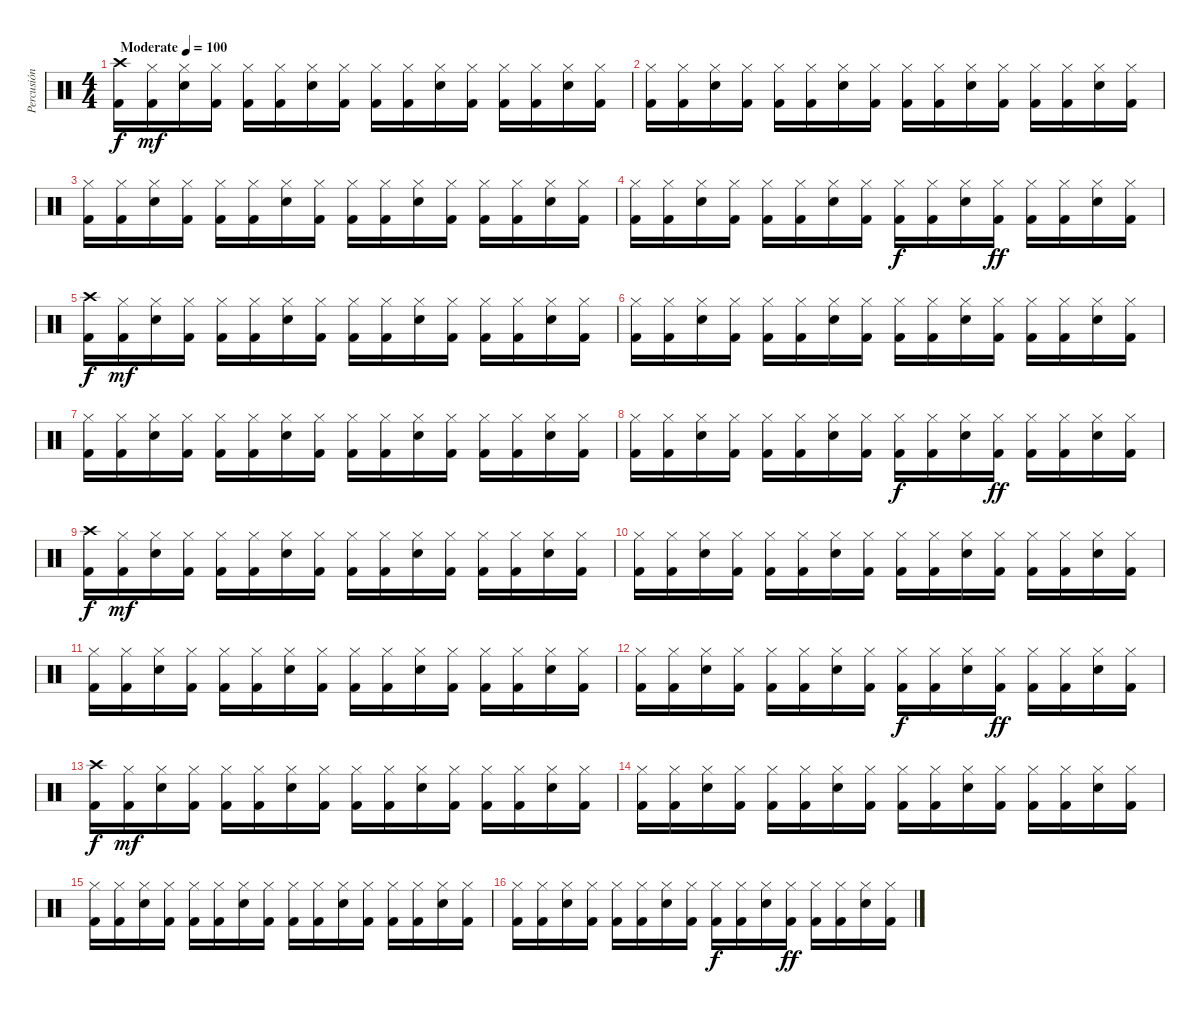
\track ("Percusión" "Percusión") {instrument percussion}
\staff {score}
\articulation defaults
\ts (4 4)
\tempo (100 "Moderate")
\clef neutral
\ks c
("Crash high (hit)" "Kick (hit) 2").16{dy f} ("Hi-Hat (closed)" "Kick (hit) 2").16{dy mf} ("Hi-Hat (closed)" "Electric Snare (hit)").16 ("Hi-Hat (closed)" "Kick (hit) 2").16 ("Hi-Hat (closed)" "Kick (hit) 2").16 ("Hi-Hat (closed)" "Kick (hit) 2").16 ("Hi-Hat (closed)" "Electric Snare (hit)").16 ("Hi-Hat (closed)" "Kick (hit) 2").16 ("Hi-Hat (closed)" "Kick (hit) 2").16 ("Hi-Hat (closed)" "Kick (hit) 2").16 ("Hi-Hat (closed)" "Electric Snare (hit)").16 ("Hi-Hat (closed)" "Kick (hit) 2").16 ("Hi-Hat (closed)" "Kick (hit) 2").16 ("Hi-Hat (closed)" "Kick (hit) 2").16 ("Hi-Hat (closed)" "Electric Snare (hit)").16 ("Hi-Hat (closed)" "Kick (hit) 2").16 |
("Hi-Hat (closed)" "Kick (hit) 2").16 ("Hi-Hat (closed)" "Kick (hit) 2").16 ("Hi-Hat (closed)" "Electric Snare (hit)").16 ("Hi-Hat (closed)" "Kick (hit) 2").16 ("Hi-Hat (closed)" "Kick (hit) 2").16 ("Hi-Hat (closed)" "Kick (hit) 2").16 ("Hi-Hat (closed)" "Electric Snare (hit)").16 ("Hi-Hat (closed)" "Kick (hit) 2").16 ("Hi-Hat (closed)" "Kick (hit) 2").16 ("Hi-Hat (closed)" "Kick (hit) 2").16 ("Hi-Hat (closed)" "Electric Snare (hit)").16 ("Hi-Hat (closed)" "Kick (hit) 2").16 ("Hi-Hat (closed)" "Kick (hit) 2").16 ("Hi-Hat (closed)" "Kick (hit) 2").16 ("Hi-Hat (closed)" "Electric Snare (hit)").16 ("Hi-Hat (closed)" "Kick (hit) 2").16 |
("Hi-Hat (closed)" "Kick (hit) 2").16 ("Hi-Hat (closed)" "Kick (hit) 2").16 ("Hi-Hat (closed)" "Electric Snare (hit)").16 ("Hi-Hat (closed)" "Kick (hit) 2").16 ("Hi-Hat (closed)" "Kick (hit) 2").16 ("Hi-Hat (closed)" "Kick (hit) 2").16 ("Hi-Hat (closed)" "Electric Snare (hit)").16 ("Hi-Hat (closed)" "Kick (hit) 2").16 ("Hi-Hat (closed)" "Kick (hit) 2").16 ("Hi-Hat (closed)" "Kick (hit) 2").16 ("Hi-Hat (closed)" "Electric Snare (hit)").16 ("Hi-Hat (closed)" "Kick (hit) 2").16 ("Hi-Hat (closed)" "Kick (hit) 2").16 ("Hi-Hat (closed)" "Kick (hit) 2").16 ("Hi-Hat (closed)" "Electric Snare (hit)").16 ("Hi-Hat (closed)" "Kick (hit) 2").16 |
("Hi-Hat (closed)" "Kick (hit) 2").16 ("Hi-Hat (closed)" "Kick (hit) 2").16 ("Hi-Hat (closed)" "Electric Snare (hit)").16 ("Hi-Hat (closed)" "Kick (hit) 2").16 ("Hi-Hat (closed)" "Kick (hit) 2").16 ("Hi-Hat (closed)" "Kick (hit) 2").16 ("Hi-Hat (closed)" "Electric Snare (hit)").16 ("Hi-Hat (closed)" "Kick (hit) 2").16 ("Hi-Hat (closed)" "Kick (hit) 2").16{dy f} ("Hi-Hat (closed)" "Kick (hit) 2").16 ("Hi-Hat (closed)" "Electric Snare (hit)").16 ("Hi-Hat (closed)" "Kick (hit) 2").16{dy ff} ("Hi-Hat (closed)" "Kick (hit) 2").16 ("Hi-Hat (closed)" "Kick (hit) 2").16 ("Hi-Hat (closed)" "Electric Snare (hit)").16 ("Hi-Hat (closed)" "Kick (hit) 2").16 |
("Crash high (hit)" "Kick (hit) 2").16{dy f} ("Hi-Hat (closed)" "Kick (hit) 2").16{dy mf} ("Hi-Hat (closed)" "Electric Snare (hit)").16 ("Hi-Hat (closed)" "Kick (hit) 2").16 ("Hi-Hat (closed)" "Kick (hit) 2").16 ("Hi-Hat (closed)" "Kick (hit) 2").16 ("Hi-Hat (closed)" "Electric Snare (hit)").16 ("Hi-Hat (closed)" "Kick (hit) 2").16 ("Hi-Hat (closed)" "Kick (hit) 2").16 ("Hi-Hat (closed)" "Kick (hit) 2").16 ("Hi-Hat (closed)" "Electric Snare (hit)").16 ("Hi-Hat (closed)" "Kick (hit) 2").16 ("Hi-Hat (closed)" "Kick (hit) 2").16 ("Hi-Hat (closed)" "Kick (hit) 2").16 ("Hi-Hat (closed)" "Electric Snare (hit)").16 ("Hi-Hat (closed)" "Kick (hit) 2").16 |
("Hi-Hat (closed)" "Kick (hit) 2").16 ("Hi-Hat (closed)" "Kick (hit) 2").16 ("Hi-Hat (closed)" "Electric Snare (hit)").16 ("Hi-Hat (closed)" "Kick (hit) 2").16 ("Hi-Hat (closed)" "Kick (hit) 2").16 ("Hi-Hat (closed)" "Kick (hit) 2").16 ("Hi-Hat (closed)" "Electric Snare (hit)").16 ("Hi-Hat (closed)" "Kick (hit) 2").16 ("Hi-Hat (closed)" "Kick (hit) 2").16 ("Hi-Hat (closed)" "Kick (hit) 2").16 ("Hi-Hat (closed)" "Electric Snare (hit)").16 ("Hi-Hat (closed)" "Kick (hit) 2").16 ("Hi-Hat (closed)" "Kick (hit) 2").16 ("Hi-Hat (closed)" "Kick (hit) 2").16 ("Hi-Hat (closed)" "Electric Snare (hit)").16 ("Hi-Hat (closed)" "Kick (hit) 2").16 |
("Hi-Hat (closed)" "Kick (hit) 2").16 ("Hi-Hat (closed)" "Kick (hit) 2").16 ("Hi-Hat (closed)" "Electric Snare (hit)").16 ("Hi-Hat (closed)" "Kick (hit) 2").16 ("Hi-Hat (closed)" "Kick (hit) 2").16 ("Hi-Hat (closed)" "Kick (hit) 2").16 ("Hi-Hat (closed)" "Electric Snare (hit)").16 ("Hi-Hat (closed)" "Kick (hit) 2").16 ("Hi-Hat (closed)" "Kick (hit) 2").16 ("Hi-Hat (closed)" "Kick (hit) 2").16 ("Hi-Hat (closed)" "Electric Snare (hit)").16 ("Hi-Hat (closed)" "Kick (hit) 2").16 ("Hi-Hat (closed)" "Kick (hit) 2").16 ("Hi-Hat (closed)" "Kick (hit) 2").16 ("Hi-Hat (closed)" "Electric Snare (hit)").16 ("Hi-Hat (closed)" "Kick (hit) 2").16 |
("Hi-Hat (closed)" "Kick (hit) 2").16 ("Hi-Hat (closed)" "Kick (hit) 2").16 ("Hi-Hat (closed)" "Electric Snare (hit)").16 ("Hi-Hat (closed)" "Kick (hit) 2").16 ("Hi-Hat (closed)" "Kick (hit) 2").16 ("Hi-Hat (closed)" "Kick (hit) 2").16 ("Hi-Hat (closed)" "Electric Snare (hit)").16 ("Hi-Hat (closed)" "Kick (hit) 2").16 ("Hi-Hat (closed)" "Kick (hit) 2").16{dy f} ("Hi-Hat (closed)" "Kick (hit) 2").16 ("Hi-Hat (closed)" "Electric Snare (hit)").16 ("Hi-Hat (closed)" "Kick (hit) 2").16{dy ff} ("Hi-Hat (closed)" "Kick (hit) 2").16 ("Hi-Hat (closed)" "Kick (hit) 2").16 ("Hi-Hat (closed)" "Electric Snare (hit)").16 ("Hi-Hat (closed)" "Kick (hit) 2").16 |
("Crash high (hit)" "Kick (hit) 2").16{dy f} ("Hi-Hat (closed)" "Kick (hit) 2").16{dy mf} ("Hi-Hat (closed)" "Electric Snare (hit)").16 ("Hi-Hat (closed)" "Kick (hit) 2").16 ("Hi-Hat (closed)" "Kick (hit) 2").16 ("Hi-Hat (closed)" "Kick (hit) 2").16 ("Hi-Hat (closed)" "Electric Snare (hit)").16 ("Hi-Hat (closed)" "Kick (hit) 2").16 ("Hi-Hat (closed)" "Kick (hit) 2").16 ("Hi-Hat (closed)" "Kick (hit) 2").16 ("Hi-Hat (closed)" "Electric Snare (hit)").16 ("Hi-Hat (closed)" "Kick (hit) 2").16 ("Hi-Hat (closed)" "Kick (hit) 2").16 ("Hi-Hat (closed)" "Kick (hit) 2").16 ("Hi-Hat (closed)" "Electric Snare (hit)").16 ("Hi-Hat (closed)" "Kick (hit) 2").16 |
("Hi-Hat (closed)" "Kick (hit) 2").16 ("Hi-Hat (closed)" "Kick (hit) 2").16 ("Hi-Hat (closed)" "Electric Snare (hit)").16 ("Hi-Hat (closed)" "Kick (hit) 2").16 ("Hi-Hat (closed)" "Kick (hit) 2").16 ("Hi-Hat (closed)" "Kick (hit) 2").16 ("Hi-Hat (closed)" "Electric Snare (hit)").16 ("Hi-Hat (closed)" "Kick (hit) 2").16 ("Hi-Hat (closed)" "Kick (hit) 2").16 ("Hi-Hat (closed)" "Kick (hit) 2").16 ("Hi-Hat (closed)" "Electric Snare (hit)").16 ("Hi-Hat (closed)" "Kick (hit) 2").16 ("Hi-Hat (closed)" "Kick (hit) 2").16 ("Hi-Hat (closed)" "Kick (hit) 2").16 ("Hi-Hat (closed)" "Electric Snare (hit)").16 ("Hi-Hat (closed)" "Kick (hit) 2").16 |
("Hi-Hat (closed)" "Kick (hit) 2").16 ("Hi-Hat (closed)" "Kick (hit) 2").16 ("Hi-Hat (closed)" "Electric Snare (hit)").16 ("Hi-Hat (closed)" "Kick (hit) 2").16 ("Hi-Hat (closed)" "Kick (hit) 2").16 ("Hi-Hat (closed)" "Kick (hit) 2").16 ("Hi-Hat (closed)" "Electric Snare (hit)").16 ("Hi-Hat (closed)" "Kick (hit) 2").16 ("Hi-Hat (closed)" "Kick (hit) 2").16 ("Hi-Hat (closed)" "Kick (hit) 2").16 ("Hi-Hat (closed)" "Electric Snare (hit)").16 ("Hi-Hat (closed)" "Kick (hit) 2").16 ("Hi-Hat (closed)" "Kick (hit) 2").16 ("Hi-Hat (closed)" "Kick (hit) 2").16 ("Hi-Hat (closed)" "Electric Snare (hit)").16 ("Hi-Hat (closed)" "Kick (hit) 2").16 |
("Hi-Hat (closed)" "Kick (hit) 2").16 ("Hi-Hat (closed)" "Kick (hit) 2").16 ("Hi-Hat (closed)" "Electric Snare (hit)").16 ("Hi-Hat (closed)" "Kick (hit) 2").16 ("Hi-Hat (closed)" "Kick (hit) 2").16 ("Hi-Hat (closed)" "Kick (hit) 2").16 ("Hi-Hat (closed)" "Electric Snare (hit)").16 ("Hi-Hat (closed)" "Kick (hit) 2").16 ("Hi-Hat (closed)" "Kick (hit) 2").16{dy f} ("Hi-Hat (closed)" "Kick (hit) 2").16 ("Hi-Hat (closed)" "Electric Snare (hit)").16 ("Hi-Hat (closed)" "Kick (hit) 2").16{dy ff} ("Hi-Hat (closed)" "Kick (hit) 2").16 ("Hi-Hat (closed)" "Kick (hit) 2").16 ("Hi-Hat (closed)" "Electric Snare (hit)").16 ("Hi-Hat (closed)" "Kick (hit) 2").16 |
("Crash high (hit)" "Kick (hit) 2").16{dy f} ("Hi-Hat (closed)" "Kick (hit) 2").16{dy mf} ("Hi-Hat (closed)" "Electric Snare (hit)").16 ("Hi-Hat (closed)" "Kick (hit) 2").16 ("Hi-Hat (closed)" "Kick (hit) 2").16 ("Hi-Hat (closed)" "Kick (hit) 2").16 ("Hi-Hat (closed)" "Electric Snare (hit)").16 ("Hi-Hat (closed)" "Kick (hit) 2").16 ("Hi-Hat (closed)" "Kick (hit) 2").16 ("Hi-Hat (closed)" "Kick (hit) 2").16 ("Hi-Hat (closed)" "Electric Snare (hit)").16 ("Hi-Hat (closed)" "Kick (hit) 2").16 ("Hi-Hat (closed)" "Kick (hit) 2").16 ("Hi-Hat (closed)" "Kick (hit) 2").16 ("Hi-Hat (closed)" "Electric Snare (hit)").16 ("Hi-Hat (closed)" "Kick (hit) 2").16 |
("Hi-Hat (closed)" "Kick (hit) 2").16 ("Hi-Hat (closed)" "Kick (hit) 2").16 ("Hi-Hat (closed)" "Electric Snare (hit)").16 ("Hi-Hat (closed)" "Kick (hit) 2").16 ("Hi-Hat (closed)" "Kick (hit) 2").16 ("Hi-Hat (closed)" "Kick (hit) 2").16 ("Hi-Hat (closed)" "Electric Snare (hit)").16 ("Hi-Hat (closed)" "Kick (hit) 2").16 ("Hi-Hat (closed)" "Kick (hit) 2").16 ("Hi-Hat (closed)" "Kick (hit) 2").16 ("Hi-Hat (closed)" "Electric Snare (hit)").16 ("Hi-Hat (closed)" "Kick (hit) 2").16 ("Hi-Hat (closed)" "Kick (hit) 2").16 ("Hi-Hat (closed)" "Kick (hit) 2").16 ("Hi-Hat (closed)" "Electric Snare (hit)").16 ("Hi-Hat (closed)" "Kick (hit) 2").16 |
("Hi-Hat (closed)" "Kick (hit) 2").16 ("Hi-Hat (closed)" "Kick (hit) 2").16 ("Hi-Hat (closed)" "Electric Snare (hit)").16 ("Hi-Hat (closed)" "Kick (hit) 2").16 ("Hi-Hat (closed)" "Kick (hit) 2").16 ("Hi-Hat (closed)" "Kick (hit) 2").16 ("Hi-Hat (closed)" "Electric Snare (hit)").16 ("Hi-Hat (closed)" "Kick (hit) 2").16 ("Hi-Hat (closed)" "Kick (hit) 2").16 ("Hi-Hat (closed)" "Kick (hit) 2").16 ("Hi-Hat (closed)" "Electric Snare (hit)").16 ("Hi-Hat (closed)" "Kick (hit) 2").16 ("Hi-Hat (closed)" "Kick (hit) 2").16 ("Hi-Hat (closed)" "Kick (hit) 2").16 ("Hi-Hat (closed)" "Electric Snare (hit)").16 ("Hi-Hat (closed)" "Kick (hit) 2").16 |
("Hi-Hat (closed)" "Kick (hit) 2").16 ("Hi-Hat (closed)" "Kick (hit) 2").16 ("Hi-Hat (closed)" "Electric Snare (hit)").16 ("Hi-Hat (closed)" "Kick (hit) 2").16 ("Hi-Hat (closed)" "Kick (hit) 2").16 ("Hi-Hat (closed)" "Kick (hit) 2").16 ("Hi-Hat (closed)" "Electric Snare (hit)").16 ("Hi-Hat (closed)" "Kick (hit) 2").16 ("Hi-Hat (closed)" "Kick (hit) 2").16{dy f} ("Hi-Hat (closed)" "Kick (hit) 2").16 ("Hi-Hat (closed)" "Electric Snare (hit)").16 ("Hi-Hat (closed)" "Kick (hit) 2").16{dy ff} ("Hi-Hat (closed)" "Kick (hit) 2").16 ("Hi-Hat (closed)" "Kick (hit) 2").16 ("Hi-Hat (closed)" "Electric Snare (hit)").16 ("Hi-Hat (closed)" "Kick (hit) 2").16
